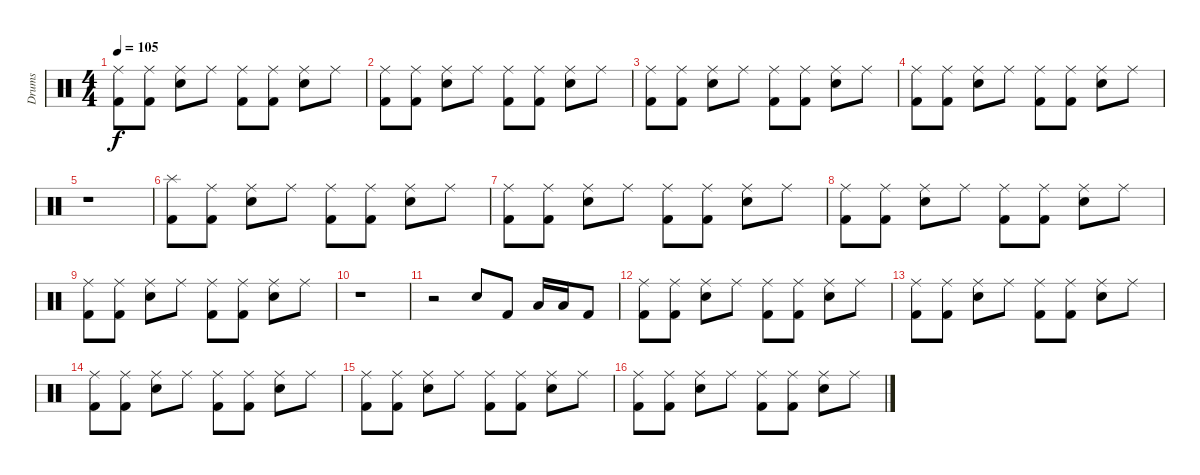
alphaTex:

\track ("Drums" "Drums") {instrument percussion}
\staff {score}
\articulation defaults
\ts (4 4)
\tempo 105
\clef neutral
\ks c
("Ride (middle)" "Kick (hit) 2").8{dy f} ("Ride (middle)" "Kick (hit) 2").8 ("Ride (middle)" "Snare (hit) 2").8 "Ride (middle)".8 ("Ride (middle)" "Kick (hit) 2").8 ("Ride (middle)" "Kick (hit) 2").8 ("Ride (middle)" "Snare (hit) 2").8 "Ride (middle)".8 |
("Ride (middle)" "Kick (hit) 2").8 ("Ride (middle)" "Kick (hit) 2").8 ("Ride (middle)" "Snare (hit) 2").8 "Ride (middle)".8 ("Ride (middle)" "Kick (hit) 2").8 ("Ride (middle)" "Kick (hit) 2").8 ("Ride (middle)" "Snare (hit) 2").8 "Ride (middle)".8 |
("Ride (middle)" "Kick (hit) 2").8 ("Ride (middle)" "Kick (hit) 2").8 ("Ride (middle)" "Snare (hit) 2").8 "Ride (middle)".8 ("Ride (middle)" "Kick (hit) 2").8 ("Ride (middle)" "Kick (hit) 2").8 ("Ride (middle)" "Snare (hit) 2").8 "Ride (middle)".8 |
("Ride (middle)" "Kick (hit) 2").8 ("Ride (middle)" "Kick (hit) 2").8 ("Ride (middle)" "Snare (hit) 2").8 "Ride (middle)".8 ("Ride (middle)" "Kick (hit) 2").8 ("Ride (middle)" "Kick (hit) 2").8 ("Ride (middle)" "Snare (hit) 2").8 "Ride (middle)".8 |
r.1 |
("Splash (hit)" "Kick (hit) 2").8 ("Ride (middle)" "Kick (hit) 2").8 ("Ride (middle)" "Snare (hit) 2").8 "Ride (middle)".8 ("Ride (middle)" "Kick (hit) 2").8 ("Ride (middle)" "Kick (hit) 2").8 ("Ride (middle)" "Snare (hit) 2").8 "Ride (middle)".8 |
("Ride (middle)" "Kick (hit) 2").8 ("Ride (middle)" "Kick (hit) 2").8 ("Ride (middle)" "Snare (hit) 2").8 "Ride (middle)".8 ("Ride (middle)" "Kick (hit) 2").8 ("Ride (middle)" "Kick (hit) 2").8 ("Ride (middle)" "Snare (hit) 2").8 "Ride (middle)".8 |
("Ride (middle)" "Kick (hit) 2").8 ("Ride (middle)" "Kick (hit) 2").8 ("Ride (middle)" "Snare (hit) 2").8 "Ride (middle)".8 ("Ride (middle)" "Kick (hit) 2").8 ("Ride (middle)" "Kick (hit) 2").8 ("Ride (middle)" "Snare (hit) 2").8 "Ride (middle)".8 |
("Ride (middle)" "Kick (hit) 2").8 ("Ride (middle)" "Kick (hit) 2").8 ("Ride (middle)" "Snare (hit) 2").8 "Ride (middle)".8 ("Ride (middle)" "Kick (hit) 2").8 ("Ride (middle)" "Kick (hit) 2").8 ("Ride (middle)" "Snare (hit) 2").8 "Ride (middle)".8 |
r.1 |
r.2 "Snare (hit) 2".8 "Kick (hit) 2".8 "Low Tom (hit)".16 "Low Tom (hit)".16 "Kick (hit) 2".8 |
("Ride (middle)" "Kick (hit) 2").8 ("Ride (middle)" "Kick (hit) 2").8 ("Ride (middle)" "Snare (hit) 2").8 "Ride (middle)".8 ("Ride (middle)" "Kick (hit) 2").8 ("Ride (middle)" "Kick (hit) 2").8 ("Ride (middle)" "Snare (hit) 2").8 "Ride (middle)".8 |
("Ride (middle)" "Kick (hit) 2").8 ("Ride (middle)" "Kick (hit) 2").8 ("Ride (middle)" "Snare (hit) 2").8 "Ride (middle)".8 ("Ride (middle)" "Kick (hit) 2").8 ("Ride (middle)" "Kick (hit) 2").8 ("Ride (middle)" "Snare (hit) 2").8 "Ride (middle)".8 |
("Ride (middle)" "Kick (hit) 2").8 ("Ride (middle)" "Kick (hit) 2").8 ("Ride (middle)" "Snare (hit) 2").8 "Ride (middle)".8 ("Ride (middle)" "Kick (hit) 2").8 ("Ride (middle)" "Kick (hit) 2").8 ("Ride (middle)" "Snare (hit) 2").8 "Ride (middle)".8 |
("Ride (middle)" "Kick (hit) 2").8 ("Ride (middle)" "Kick (hit) 2").8 ("Ride (middle)" "Snare (hit) 2").8 "Ride (middle)".8 ("Ride (middle)" "Kick (hit) 2").8 ("Ride (middle)" "Kick (hit) 2").8 ("Ride (middle)" "Snare (hit) 2").8 "Ride (middle)".8 |
("Ride (middle)" "Kick (hit) 2").8 ("Ride (middle)" "Kick (hit) 2").8 ("Ride (middle)" "Snare (hit) 2").8 "Ride (middle)".8 ("Ride (middle)" "Kick (hit) 2").8 ("Ride (middle)" "Kick (hit) 2").8 ("Ride (middle)" "Snare (hit) 2").8 "Ride (middle)".8
